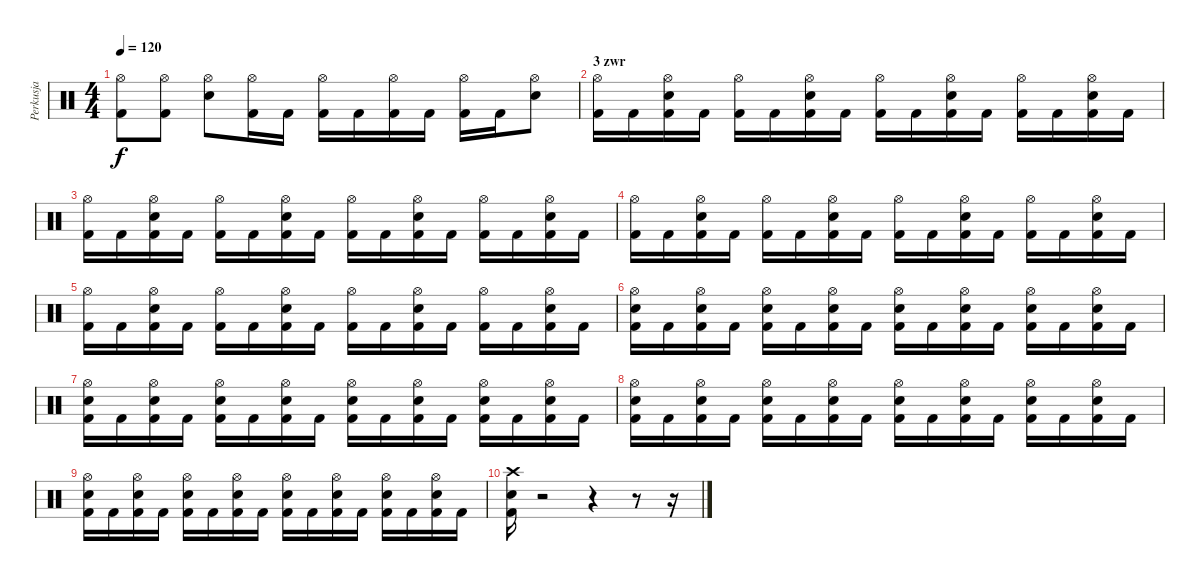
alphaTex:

\track ("Perkusja" "Perkusja") {instrument percussion}
\staff {score}
\articulation defaults
\ts (4 4)
\tempo 120
\clef neutral
\ks c
("Hi-Hat (open)" "Kick (hit) 2").8{dy f} ("Hi-Hat (open)" "Kick (hit) 2").8 ("Hi-Hat (open)" "Snare (hit) 2").8 ("Hi-Hat (open)" "Kick (hit) 2").16 "Kick (hit) 2".16 ("Hi-Hat (open)" "Kick (hit) 2").16 "Kick (hit) 2".16 ("Hi-Hat (open)" "Kick (hit) 2").16 "Kick (hit) 2".16 ("Hi-Hat (open)" "Kick (hit) 2").16 "Kick (hit) 2".16 ("Hi-Hat (open)" "Snare (hit) 2").8 |
\section ("" "3 zwr")
("Hi-Hat (open)" "Kick (hit) 2").16 "Kick (hit) 2".16 ("Hi-Hat (open)" "Snare (hit) 2" "Kick (hit) 2").16 "Kick (hit) 2".16 ("Hi-Hat (open)" "Kick (hit) 2").16 "Kick (hit) 2".16 ("Hi-Hat (open)" "Snare (hit) 2" "Kick (hit) 2").16 "Kick (hit) 2".16 ("Hi-Hat (open)" "Kick (hit) 2").16 "Kick (hit) 2".16 ("Hi-Hat (open)" "Snare (hit) 2" "Kick (hit) 2").16 "Kick (hit) 2".16 ("Hi-Hat (open)" "Kick (hit) 2").16 "Kick (hit) 2".16 ("Hi-Hat (open)" "Snare (hit) 2" "Kick (hit) 2").16 "Kick (hit) 2".16 |
("Hi-Hat (open)" "Kick (hit) 2").16 "Kick (hit) 2".16 ("Hi-Hat (open)" "Snare (hit) 2" "Kick (hit) 2").16 "Kick (hit) 2".16 ("Hi-Hat (open)" "Kick (hit) 2").16 "Kick (hit) 2".16 ("Hi-Hat (open)" "Snare (hit) 2" "Kick (hit) 2").16 "Kick (hit) 2".16 ("Hi-Hat (open)" "Kick (hit) 2").16 "Kick (hit) 2".16 ("Hi-Hat (open)" "Snare (hit) 2" "Kick (hit) 2").16 "Kick (hit) 2".16 ("Hi-Hat (open)" "Kick (hit) 2").16 "Kick (hit) 2".16 ("Hi-Hat (open)" "Snare (hit) 2" "Kick (hit) 2").16 "Kick (hit) 2".16 |
("Hi-Hat (open)" "Kick (hit) 2").16 "Kick (hit) 2".16 ("Hi-Hat (open)" "Snare (hit) 2" "Kick (hit) 2").16 "Kick (hit) 2".16 ("Hi-Hat (open)" "Kick (hit) 2").16 "Kick (hit) 2".16 ("Hi-Hat (open)" "Snare (hit) 2" "Kick (hit) 2").16 "Kick (hit) 2".16 ("Hi-Hat (open)" "Kick (hit) 2").16 "Kick (hit) 2".16 ("Hi-Hat (open)" "Snare (hit) 2" "Kick (hit) 2").16 "Kick (hit) 2".16 ("Hi-Hat (open)" "Kick (hit) 2").16 "Kick (hit) 2".16 ("Hi-Hat (open)" "Snare (hit) 2" "Kick (hit) 2").16 "Kick (hit) 2".16 |
("Hi-Hat (open)" "Kick (hit) 2").16 "Kick (hit) 2".16 ("Hi-Hat (open)" "Snare (hit) 2" "Kick (hit) 2").16 "Kick (hit) 2".16 ("Hi-Hat (open)" "Kick (hit) 2").16 "Kick (hit) 2".16 ("Hi-Hat (open)" "Snare (hit) 2" "Kick (hit) 2").16 "Kick (hit) 2".16 ("Hi-Hat (open)" "Kick (hit) 2").16 "Kick (hit) 2".16 ("Hi-Hat (open)" "Snare (hit) 2" "Kick (hit) 2").16 "Kick (hit) 2".16 ("Hi-Hat (open)" "Kick (hit) 2").16 "Kick (hit) 2".16 ("Hi-Hat (open)" "Snare (hit) 2" "Kick (hit) 2").16 "Kick (hit) 2".16 |
("Hi-Hat (open)" "Snare (hit) 2" "Kick (hit) 2").16 "Kick (hit) 2".16 ("Hi-Hat (open)" "Snare (hit) 2" "Kick (hit) 2").16 "Kick (hit) 2".16 ("Hi-Hat (open)" "Snare (hit) 2" "Kick (hit) 2").16 "Kick (hit) 2".16 ("Hi-Hat (open)" "Snare (hit) 2" "Kick (hit) 2").16 "Kick (hit) 2".16 ("Hi-Hat (open)" "Snare (hit) 2" "Kick (hit) 2").16 "Kick (hit) 2".16 ("Hi-Hat (open)" "Snare (hit) 2" "Kick (hit) 2").16 "Kick (hit) 2".16 ("Hi-Hat (open)" "Snare (hit) 2" "Kick (hit) 2").16 "Kick (hit) 2".16 ("Hi-Hat (open)" "Snare (hit) 2" "Kick (hit) 2").16 "Kick (hit) 2".16 |
("Hi-Hat (open)" "Snare (hit) 2" "Kick (hit) 2").16 "Kick (hit) 2".16 ("Hi-Hat (open)" "Snare (hit) 2" "Kick (hit) 2").16 "Kick (hit) 2".16 ("Hi-Hat (open)" "Snare (hit) 2" "Kick (hit) 2").16 "Kick (hit) 2".16 ("Hi-Hat (open)" "Snare (hit) 2" "Kick (hit) 2").16 "Kick (hit) 2".16 ("Hi-Hat (open)" "Snare (hit) 2" "Kick (hit) 2").16 "Kick (hit) 2".16 ("Hi-Hat (open)" "Snare (hit) 2" "Kick (hit) 2").16 "Kick (hit) 2".16 ("Hi-Hat (open)" "Snare (hit) 2" "Kick (hit) 2").16 "Kick (hit) 2".16 ("Hi-Hat (open)" "Snare (hit) 2" "Kick (hit) 2").16 "Kick (hit) 2".16 |
("Hi-Hat (open)" "Snare (hit) 2" "Kick (hit) 2").16 "Kick (hit) 2".16 ("Hi-Hat (open)" "Snare (hit) 2" "Kick (hit) 2").16 "Kick (hit) 2".16 ("Hi-Hat (open)" "Snare (hit) 2" "Kick (hit) 2").16 "Kick (hit) 2".16 ("Hi-Hat (open)" "Snare (hit) 2" "Kick (hit) 2").16 "Kick (hit) 2".16 ("Hi-Hat (open)" "Snare (hit) 2" "Kick (hit) 2").16 "Kick (hit) 2".16 ("Hi-Hat (open)" "Snare (hit) 2" "Kick (hit) 2").16 "Kick (hit) 2".16 ("Hi-Hat (open)" "Snare (hit) 2" "Kick (hit) 2").16 "Kick (hit) 2".16 ("Hi-Hat (open)" "Snare (hit) 2" "Kick (hit) 2").16 "Kick (hit) 2".16 |
("Hi-Hat (open)" "Snare (hit) 2" "Kick (hit) 2").16 "Kick (hit) 2".16 ("Hi-Hat (open)" "Snare (hit) 2" "Kick (hit) 2").16 "Kick (hit) 2".16 ("Hi-Hat (open)" "Snare (hit) 2" "Kick (hit) 2").16 "Kick (hit) 2".16 ("Hi-Hat (open)" "Snare (hit) 2" "Kick (hit) 2").16 "Kick (hit) 2".16 ("Hi-Hat (open)" "Snare (hit) 2" "Kick (hit) 2").16 "Kick (hit) 2".16 ("Hi-Hat (open)" "Snare (hit) 2" "Kick (hit) 2").16 "Kick (hit) 2".16 ("Hi-Hat (open)" "Snare (hit) 2" "Kick (hit) 2").16 "Kick (hit) 2".16 ("Hi-Hat (open)" "Snare (hit) 2" "Kick (hit) 2").16 "Kick (hit) 2".16 |
("Crash high (hit)" "Snare (hit) 2" "Kick (hit) 2").16 r.2 r.4 r.8 r.16
